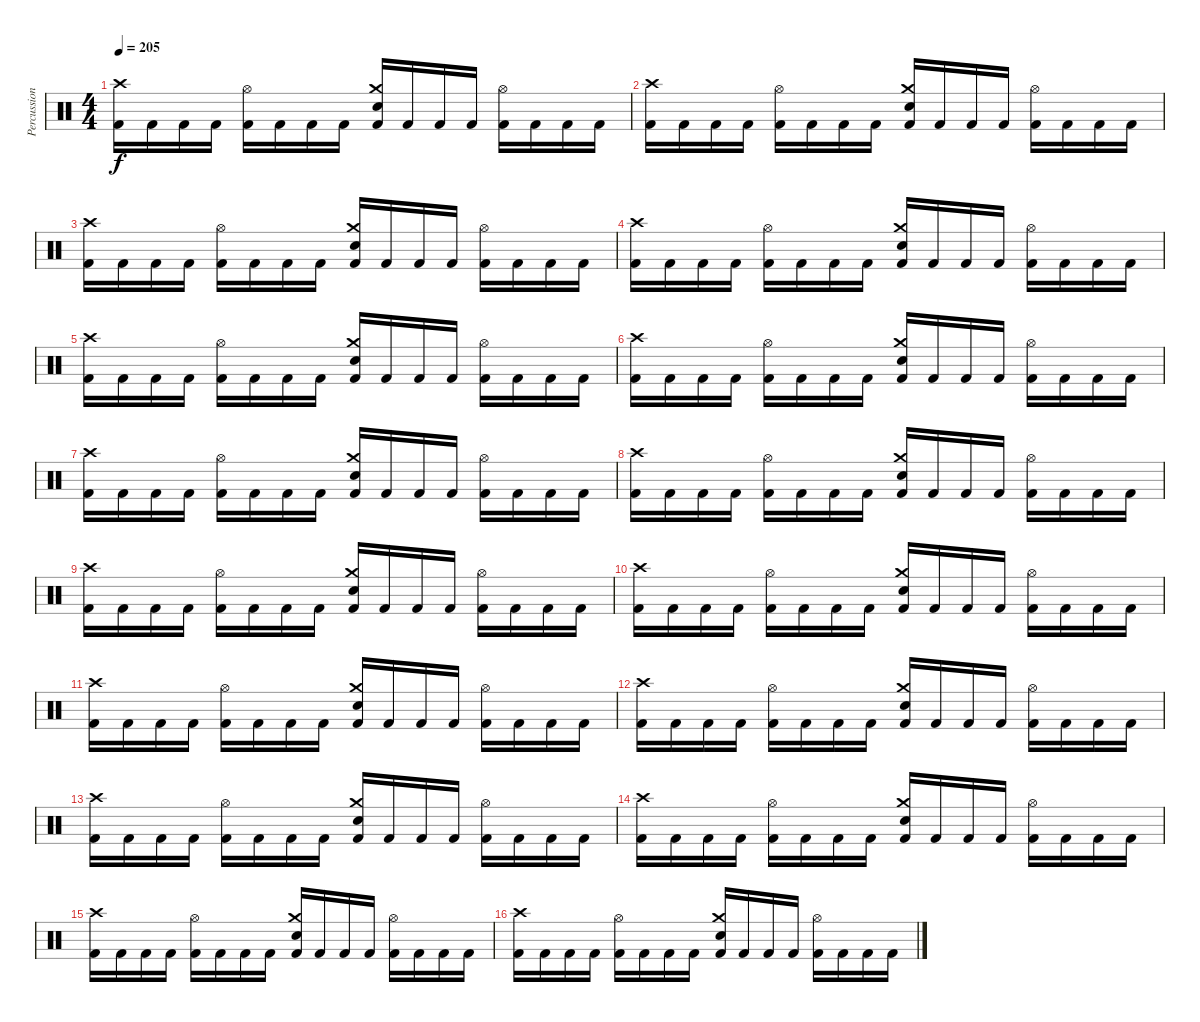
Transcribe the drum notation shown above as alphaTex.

\track ("Percussion" "Percussion") {instrument percussion}
\staff {score}
\articulation defaults
\ts (4 4)
\tempo 205
\clef neutral
\ks c
("Crash high (hit)" "Kick (hit) 2").16{dy f} "Kick (hit) 2".16 "Kick (hit) 2".16 "Kick (hit) 2".16 ("Hi-Hat (open)" "Kick (hit) 2").16 "Kick (hit) 2".16 "Kick (hit) 2".16 "Kick (hit) 2".16 ("Crash medium (hit)" "Electric Snare (hit)" "Kick (hit) 2").16 "Kick (hit) 2".16 "Kick (hit) 2".16 "Kick (hit) 2".16 ("Hi-Hat (open)" "Kick (hit) 2").16 "Kick (hit) 2".16 "Kick (hit) 2".16 "Kick (hit) 2".16 |
("Crash high (hit)" "Kick (hit) 2").16 "Kick (hit) 2".16 "Kick (hit) 2".16 "Kick (hit) 2".16 ("Hi-Hat (open)" "Kick (hit) 2").16 "Kick (hit) 2".16 "Kick (hit) 2".16 "Kick (hit) 2".16 ("Crash medium (hit)" "Electric Snare (hit)" "Kick (hit) 2").16 "Kick (hit) 2".16 "Kick (hit) 2".16 "Kick (hit) 2".16 ("Hi-Hat (open)" "Kick (hit) 2").16 "Kick (hit) 2".16 "Kick (hit) 2".16 "Kick (hit) 2".16 |
("Crash high (hit)" "Kick (hit) 2").16 "Kick (hit) 2".16 "Kick (hit) 2".16 "Kick (hit) 2".16 ("Hi-Hat (open)" "Kick (hit) 2").16 "Kick (hit) 2".16 "Kick (hit) 2".16 "Kick (hit) 2".16 ("Crash medium (hit)" "Electric Snare (hit)" "Kick (hit) 2").16 "Kick (hit) 2".16 "Kick (hit) 2".16 "Kick (hit) 2".16 ("Hi-Hat (open)" "Kick (hit) 2").16 "Kick (hit) 2".16 "Kick (hit) 2".16 "Kick (hit) 2".16 |
("Crash high (hit)" "Kick (hit) 2").16 "Kick (hit) 2".16 "Kick (hit) 2".16 "Kick (hit) 2".16 ("Hi-Hat (open)" "Kick (hit) 2").16 "Kick (hit) 2".16 "Kick (hit) 2".16 "Kick (hit) 2".16 ("Crash medium (hit)" "Electric Snare (hit)" "Kick (hit) 2").16 "Kick (hit) 2".16 "Kick (hit) 2".16 "Kick (hit) 2".16 ("Hi-Hat (open)" "Kick (hit) 2").16 "Kick (hit) 2".16 "Kick (hit) 2".16 "Kick (hit) 2".16 |
("Crash high (hit)" "Kick (hit) 2").16 "Kick (hit) 2".16 "Kick (hit) 2".16 "Kick (hit) 2".16 ("Hi-Hat (open)" "Kick (hit) 2").16 "Kick (hit) 2".16 "Kick (hit) 2".16 "Kick (hit) 2".16 ("Crash medium (hit)" "Electric Snare (hit)" "Kick (hit) 2").16 "Kick (hit) 2".16 "Kick (hit) 2".16 "Kick (hit) 2".16 ("Hi-Hat (open)" "Kick (hit) 2").16 "Kick (hit) 2".16 "Kick (hit) 2".16 "Kick (hit) 2".16 |
("Crash high (hit)" "Kick (hit) 2").16 "Kick (hit) 2".16 "Kick (hit) 2".16 "Kick (hit) 2".16 ("Hi-Hat (open)" "Kick (hit) 2").16 "Kick (hit) 2".16 "Kick (hit) 2".16 "Kick (hit) 2".16 ("Crash medium (hit)" "Electric Snare (hit)" "Kick (hit) 2").16 "Kick (hit) 2".16 "Kick (hit) 2".16 "Kick (hit) 2".16 ("Hi-Hat (open)" "Kick (hit) 2").16 "Kick (hit) 2".16 "Kick (hit) 2".16 "Kick (hit) 2".16 |
("Crash high (hit)" "Kick (hit) 2").16 "Kick (hit) 2".16 "Kick (hit) 2".16 "Kick (hit) 2".16 ("Hi-Hat (open)" "Kick (hit) 2").16 "Kick (hit) 2".16 "Kick (hit) 2".16 "Kick (hit) 2".16 ("Crash medium (hit)" "Electric Snare (hit)" "Kick (hit) 2").16 "Kick (hit) 2".16 "Kick (hit) 2".16 "Kick (hit) 2".16 ("Hi-Hat (open)" "Kick (hit) 2").16 "Kick (hit) 2".16 "Kick (hit) 2".16 "Kick (hit) 2".16 |
("Crash high (hit)" "Kick (hit) 2").16 "Kick (hit) 2".16 "Kick (hit) 2".16 "Kick (hit) 2".16 ("Hi-Hat (open)" "Kick (hit) 2").16 "Kick (hit) 2".16 "Kick (hit) 2".16 "Kick (hit) 2".16 ("Crash medium (hit)" "Electric Snare (hit)" "Kick (hit) 2").16 "Kick (hit) 2".16 "Kick (hit) 2".16 "Kick (hit) 2".16 ("Hi-Hat (open)" "Kick (hit) 2").16 "Kick (hit) 2".16 "Kick (hit) 2".16 "Kick (hit) 2".16 |
("Crash high (hit)" "Kick (hit) 2").16 "Kick (hit) 2".16 "Kick (hit) 2".16 "Kick (hit) 2".16 ("Hi-Hat (open)" "Kick (hit) 2").16 "Kick (hit) 2".16 "Kick (hit) 2".16 "Kick (hit) 2".16 ("Crash medium (hit)" "Electric Snare (hit)" "Kick (hit) 2").16 "Kick (hit) 2".16 "Kick (hit) 2".16 "Kick (hit) 2".16 ("Hi-Hat (open)" "Kick (hit) 2").16 "Kick (hit) 2".16 "Kick (hit) 2".16 "Kick (hit) 2".16 |
("Crash high (hit)" "Kick (hit) 2").16 "Kick (hit) 2".16 "Kick (hit) 2".16 "Kick (hit) 2".16 ("Hi-Hat (open)" "Kick (hit) 2").16 "Kick (hit) 2".16 "Kick (hit) 2".16 "Kick (hit) 2".16 ("Crash medium (hit)" "Electric Snare (hit)" "Kick (hit) 2").16 "Kick (hit) 2".16 "Kick (hit) 2".16 "Kick (hit) 2".16 ("Hi-Hat (open)" "Kick (hit) 2").16 "Kick (hit) 2".16 "Kick (hit) 2".16 "Kick (hit) 2".16 |
("Crash high (hit)" "Kick (hit) 2").16 "Kick (hit) 2".16 "Kick (hit) 2".16 "Kick (hit) 2".16 ("Hi-Hat (open)" "Kick (hit) 2").16 "Kick (hit) 2".16 "Kick (hit) 2".16 "Kick (hit) 2".16 ("Crash medium (hit)" "Electric Snare (hit)" "Kick (hit) 2").16 "Kick (hit) 2".16 "Kick (hit) 2".16 "Kick (hit) 2".16 ("Hi-Hat (open)" "Kick (hit) 2").16 "Kick (hit) 2".16 "Kick (hit) 2".16 "Kick (hit) 2".16 |
("Crash high (hit)" "Kick (hit) 2").16 "Kick (hit) 2".16 "Kick (hit) 2".16 "Kick (hit) 2".16 ("Hi-Hat (open)" "Kick (hit) 2").16 "Kick (hit) 2".16 "Kick (hit) 2".16 "Kick (hit) 2".16 ("Crash medium (hit)" "Electric Snare (hit)" "Kick (hit) 2").16 "Kick (hit) 2".16 "Kick (hit) 2".16 "Kick (hit) 2".16 ("Hi-Hat (open)" "Kick (hit) 2").16 "Kick (hit) 2".16 "Kick (hit) 2".16 "Kick (hit) 2".16 |
("Crash high (hit)" "Kick (hit) 2").16 "Kick (hit) 2".16 "Kick (hit) 2".16 "Kick (hit) 2".16 ("Hi-Hat (open)" "Kick (hit) 2").16 "Kick (hit) 2".16 "Kick (hit) 2".16 "Kick (hit) 2".16 ("Crash medium (hit)" "Electric Snare (hit)" "Kick (hit) 2").16 "Kick (hit) 2".16 "Kick (hit) 2".16 "Kick (hit) 2".16 ("Hi-Hat (open)" "Kick (hit) 2").16 "Kick (hit) 2".16 "Kick (hit) 2".16 "Kick (hit) 2".16 |
("Crash high (hit)" "Kick (hit) 2").16 "Kick (hit) 2".16 "Kick (hit) 2".16 "Kick (hit) 2".16 ("Hi-Hat (open)" "Kick (hit) 2").16 "Kick (hit) 2".16 "Kick (hit) 2".16 "Kick (hit) 2".16 ("Crash medium (hit)" "Electric Snare (hit)" "Kick (hit) 2").16 "Kick (hit) 2".16 "Kick (hit) 2".16 "Kick (hit) 2".16 ("Hi-Hat (open)" "Kick (hit) 2").16 "Kick (hit) 2".16 "Kick (hit) 2".16 "Kick (hit) 2".16 |
("Crash high (hit)" "Kick (hit) 2").16 "Kick (hit) 2".16 "Kick (hit) 2".16 "Kick (hit) 2".16 ("Hi-Hat (open)" "Kick (hit) 2").16 "Kick (hit) 2".16 "Kick (hit) 2".16 "Kick (hit) 2".16 ("Crash medium (hit)" "Electric Snare (hit)" "Kick (hit) 2").16 "Kick (hit) 2".16 "Kick (hit) 2".16 "Kick (hit) 2".16 ("Hi-Hat (open)" "Kick (hit) 2").16 "Kick (hit) 2".16 "Kick (hit) 2".16 "Kick (hit) 2".16 |
("Crash high (hit)" "Kick (hit) 2").16 "Kick (hit) 2".16 "Kick (hit) 2".16 "Kick (hit) 2".16 ("Hi-Hat (open)" "Kick (hit) 2").16 "Kick (hit) 2".16 "Kick (hit) 2".16 "Kick (hit) 2".16 ("Crash medium (hit)" "Electric Snare (hit)" "Kick (hit) 2").16 "Kick (hit) 2".16 "Kick (hit) 2".16 "Kick (hit) 2".16 ("Hi-Hat (open)" "Kick (hit) 2").16 "Kick (hit) 2".16 "Kick (hit) 2".16 "Kick (hit) 2".16
